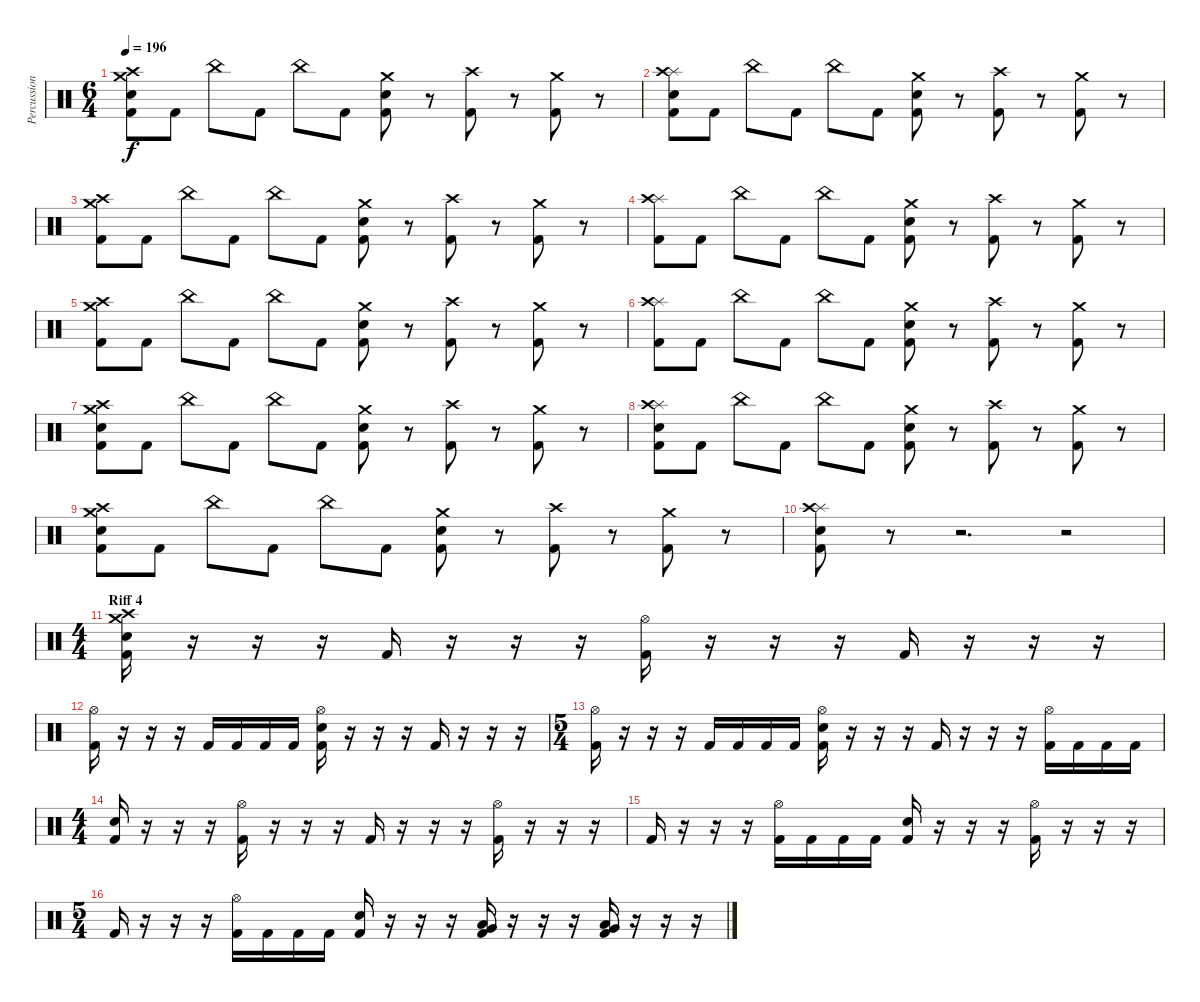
\track ("Percussion" "Percussion") {instrument percussion}
\staff {score}
\articulation defaults
\ts (6 4)
\tempo 196
\clef neutral
\ks c
("Crash medium (hit)" "Crash high (hit)" "Electric Snare (hit)" "Kick (hit) 2").8{dy f} "Kick (hit) 2".8 "China (hit)".8 "Kick (hit) 2".8 "China (hit)".8 "Kick (hit) 2".8 ("Crash medium (hit)" "Electric Snare (hit)" "Kick (hit) 2").8 r.8 ("Crash high (hit)" "Kick (hit) 2").8 r.8 ("Crash medium (hit)" "Kick (hit) 2").8 r.8 |
("Splash (hit)" "Crash high (hit)" "Electric Snare (hit)" "Kick (hit) 2").8 "Kick (hit) 2".8 "China (hit)".8 "Kick (hit) 2".8 "China (hit)".8 "Kick (hit) 2".8 ("Crash medium (hit)" "Electric Snare (hit)" "Kick (hit) 2").8 r.8 ("Crash high (hit)" "Kick (hit) 2").8 r.8 ("Crash medium (hit)" "Kick (hit) 2").8 r.8 |
("Crash medium (hit)" "Crash high (hit)" "Kick (hit) 2").8 "Kick (hit) 2".8 "China (hit)".8 "Kick (hit) 2".8 "China (hit)".8 "Kick (hit) 2".8 ("Crash medium (hit)" "Electric Snare (hit)" "Kick (hit) 2").8 r.8 ("Crash high (hit)" "Kick (hit) 2").8 r.8 ("Crash medium (hit)" "Kick (hit) 2").8 r.8 |
("Splash (hit)" "Crash high (hit)" "Kick (hit) 2").8 "Kick (hit) 2".8 "China (hit)".8 "Kick (hit) 2".8 "China (hit)".8 "Kick (hit) 2".8 ("Crash medium (hit)" "Electric Snare (hit)" "Kick (hit) 2").8 r.8 ("Crash high (hit)" "Kick (hit) 2").8 r.8 ("Crash medium (hit)" "Kick (hit) 2").8 r.8 |
("Crash medium (hit)" "Crash high (hit)" "Kick (hit) 2").8 "Kick (hit) 2".8 "China (hit)".8 "Kick (hit) 2".8 "China (hit)".8 "Kick (hit) 2".8 ("Crash medium (hit)" "Electric Snare (hit)" "Kick (hit) 2").8 r.8 ("Crash high (hit)" "Kick (hit) 2").8 r.8 ("Crash medium (hit)" "Kick (hit) 2").8 r.8 |
("Splash (hit)" "Crash high (hit)" "Kick (hit) 2").8 "Kick (hit) 2".8 "China (hit)".8 "Kick (hit) 2".8 "China (hit)".8 "Kick (hit) 2".8 ("Crash medium (hit)" "Electric Snare (hit)" "Kick (hit) 2").8 r.8 ("Crash high (hit)" "Kick (hit) 2").8 r.8 ("Crash medium (hit)" "Kick (hit) 2").8 r.8 |
("Crash medium (hit)" "Crash high (hit)" "Electric Snare (hit)" "Kick (hit) 2").8 "Kick (hit) 2".8 "China (hit)".8 "Kick (hit) 2".8 "China (hit)".8 "Kick (hit) 2".8 ("Crash medium (hit)" "Electric Snare (hit)" "Kick (hit) 2").8 r.8 ("Crash high (hit)" "Kick (hit) 2").8 r.8 ("Crash medium (hit)" "Kick (hit) 2").8 r.8 |
("Splash (hit)" "Crash high (hit)" "Electric Snare (hit)" "Kick (hit) 2").8 "Kick (hit) 2".8 "China (hit)".8 "Kick (hit) 2".8 "China (hit)".8 "Kick (hit) 2".8 ("Crash medium (hit)" "Electric Snare (hit)" "Kick (hit) 2").8 r.8 ("Crash high (hit)" "Kick (hit) 2").8 r.8 ("Crash medium (hit)" "Kick (hit) 2").8 r.8 |
("Crash medium (hit)" "Crash high (hit)" "Electric Snare (hit)" "Kick (hit) 2").8 "Kick (hit) 2".8 "China (hit)".8 "Kick (hit) 2".8 "China (hit)".8 "Kick (hit) 2".8 ("Crash medium (hit)" "Electric Snare (hit)" "Kick (hit) 2").8 r.8 ("Crash high (hit)" "Kick (hit) 2").8 r.8 ("Crash medium (hit)" "Kick (hit) 2").8 r.8 |
("Splash (hit)" "Crash high (hit)" "Electric Snare (hit)" "Kick (hit) 2").8 r.8 r.2{d} r.2 |
\ts (4 4)
\section ("" "Riff 4")
("Crash medium (hit)" "Crash high (hit)" "Electric Snare (hit)" "Kick (hit) 2").16 r.16 r.16 r.16 "Kick (hit) 2".16 r.16 r.16 r.16 ("Hi-Hat (open)" "Kick (hit) 2").16 r.16 r.16 r.16 "Kick (hit) 2".16 r.16 r.16 r.16 |
("Hi-Hat (open)" "Kick (hit) 2").16 r.16 r.16 r.16 "Kick (hit) 2".16 "Kick (hit) 2".16 "Kick (hit) 2".16 "Kick (hit) 2".16 ("Hi-Hat (open)" "Electric Snare (hit)" "Kick (hit) 2").16 r.16 r.16 r.16 "Kick (hit) 2".16 r.16 r.16 r.16 |
\ts (5 4)
("Hi-Hat (open)" "Kick (hit) 2").16 r.16 r.16 r.16 "Kick (hit) 2".16 "Kick (hit) 2".16 "Kick (hit) 2".16 "Kick (hit) 2".16 ("Hi-Hat (open)" "Electric Snare (hit)" "Kick (hit) 2").16 r.16 r.16 r.16 "Kick (hit) 2".16 r.16 r.16 r.16 ("Hi-Hat (open)" "Kick (hit) 2").16 "Kick (hit) 2".16 "Kick (hit) 2".16 "Kick (hit) 2".16 |
\ts (4 4)
("Electric Snare (hit)" "Kick (hit) 2").16 r.16 r.16 r.16 ("Hi-Hat (open)" "Kick (hit) 2").16 r.16 r.16 r.16 "Kick (hit) 2".16 r.16 r.16 r.16 ("Hi-Hat (open)" "Kick (hit) 2").16 r.16 r.16 r.16 |
"Kick (hit) 2".16 r.16 r.16 r.16 ("Hi-Hat (open)" "Kick (hit) 2").16 "Kick (hit) 2".16 "Kick (hit) 2".16 "Kick (hit) 2".16 ("Electric Snare (hit)" "Kick (hit) 2").16 r.16 r.16 r.16 ("Hi-Hat (open)" "Kick (hit) 2").16 r.16 r.16 r.16 |
\ts (5 4)
"Kick (hit) 2".16 r.16 r.16 r.16 ("Hi-Hat (open)" "Kick (hit) 2").16 "Kick (hit) 2".16 "Kick (hit) 2".16 "Kick (hit) 2".16 ("Electric Snare (hit)" "Kick (hit) 2").16 r.16 r.16 r.16 ("Very Low Tom (hit)" "Low Floor Tom (hit)" "Kick (hit) 2").16 r.16 r.16 r.16 ("Very Low Tom (hit)" "Low Floor Tom (hit)" "Kick (hit) 2").16 r.16 r.16 r.16
